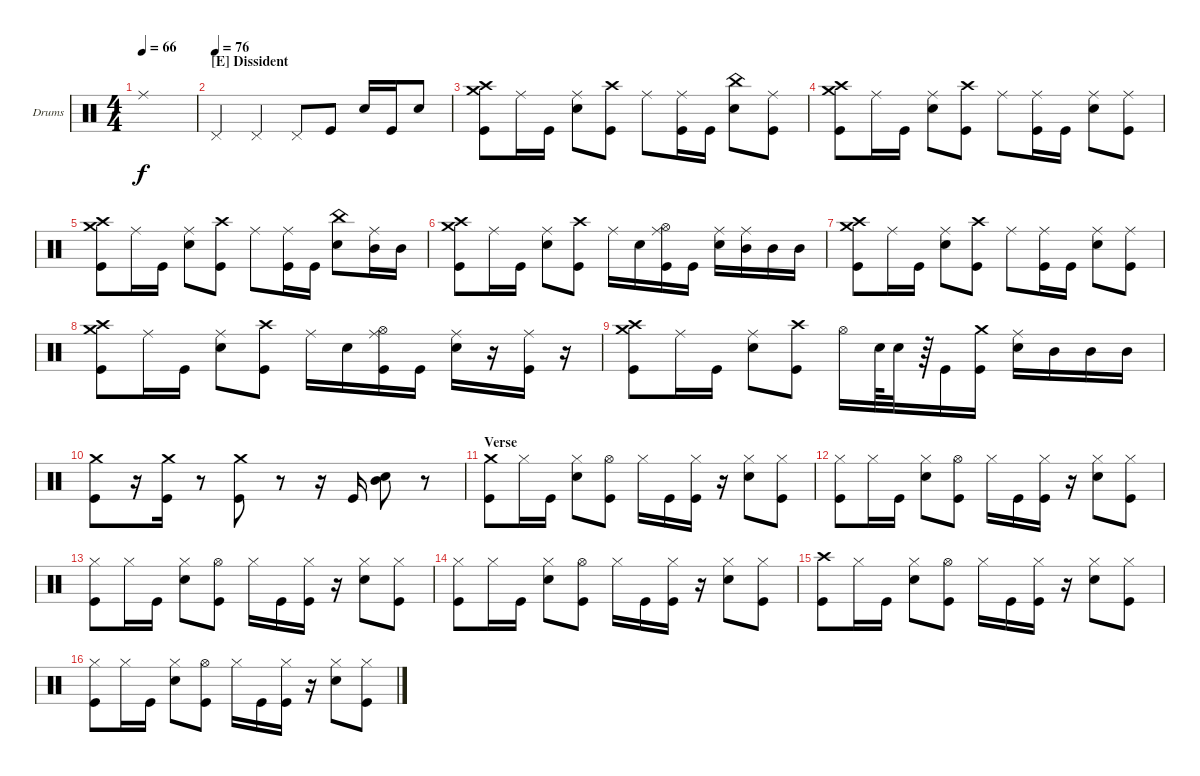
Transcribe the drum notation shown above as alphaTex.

\defaultSystemsLayout 4
\bracketExtendMode nobrackets
\firstSystemTrackNameOrientation horizontal
\otherSystemsTrackNameOrientation horizontal
\track ("Dave Abbruzzese" "Drums") {solo instrument percussion}
\staff {score}
\articulation defaults
\ts (4 4)
\tempo 66
\clef neutral
\ks c "Ride (middle)".1{dy f}
|
\section ("E" "Dissident")
\tempo (76)
"Pedal Hi-Hat (hit)".4 "Pedal Hi-Hat (hit)".4 "Pedal Hi-Hat (hit)".8 "Kick (hit)".8 "Snare (hit) 2".16 "Kick (hit)".16 "Snare (hit) 2".8 |
("Crash high (hit)" "Kick (hit)" "Crash medium (hit)").8 "Ride (middle)".16 "Kick (hit)".16 ("Snare (hit) 2" "Ride (middle)").8 ("Kick (hit)" "Crash high (hit)").8 "Ride (middle)".8 ("Kick (hit)" "Ride (middle)").16 "Kick (hit)".16 ("Snare (hit) 2" "China (hit)").8 ("Kick (hit)" "Ride (middle)").8 |
("Crash high (hit)" "Kick (hit)" "Crash medium (hit)").8 "Ride (middle)".16 "Kick (hit)".16 ("Snare (hit) 2" "Ride (middle)").8 ("Kick (hit)" "Crash high (hit)").8 "Ride (middle)".8 ("Kick (hit)" "Ride (middle)").16 "Kick (hit)".16 ("Snare (hit) 2" "Ride (middle)").8 ("Kick (hit)" "Ride (middle)").8 |
("Crash high (hit)" "Kick (hit)" "Crash medium (hit)").8 "Ride (middle)".16 "Kick (hit)".16 ("Snare (hit) 2" "Ride (middle)").8 ("Kick (hit)" "Crash high (hit)").8 "Ride (middle)".8 ("Kick (hit)" "Ride (middle)").16 "Kick (hit)".16 ("Snare (hit) 2" "China (hit)").8 ("Mid Tom (hit)" "Ride (middle)").16 "Mid Tom (hit)".16 |
("Crash high (hit)" "Kick (hit)" "Crash medium (hit)").8 "Ride (middle)".16 "Kick (hit)".16 ("Snare (hit) 2" "Ride (middle)").8 ("Kick (hit)" "Crash high (hit)").8 "Ride (middle)".16 "Snare (hit) 2".16 ("Hi-Hat (open)" "Kick (hit)" "Ride (middle)").16 "Kick (hit)".16 ("Snare (hit) 2" "Ride (middle)").16 ("Mid Tom (hit)" "Ride (middle)").16 "Mid Tom (hit)".16 "Mid Tom (hit)".16 |
("Crash high (hit)" "Kick (hit)" "Crash medium (hit)").8 "Ride (middle)".16 "Kick (hit)".16 ("Snare (hit) 2" "Ride (middle)").8 ("Kick (hit)" "Crash high (hit)").8 "Ride (middle)".8 ("Kick (hit)" "Ride (middle)").16 "Kick (hit)".16 ("Snare (hit) 2" "Ride (middle)").8 ("Kick (hit)" "Ride (middle)").8 |
("Crash high (hit)" "Kick (hit)" "Crash medium (hit)").8 "Ride (middle)".16 "Kick (hit)".16 ("Snare (hit) 2" "Ride (middle)").8 ("Kick (hit)" "Crash high (hit)").8 "Ride (middle)".16 "Snare (hit) 2".16 ("Hi-Hat (open)" "Kick (hit)" "Ride (middle)").16 "Kick (hit)".16 ("Snare (hit) 2" "Ride (middle)").16 r.16 ("Kick (hit)" "Ride (middle)").16 r.16 |
("Crash high (hit)" "Kick (hit)" "Crash medium (hit)").8 "Ride (middle)".16 "Kick (hit)".16 ("Snare (hit) 2" "Ride (middle)").8 ("Kick (hit)" "Crash high (hit)").8 "Hi-Hat (open)".16 "Snare (hit) 2".64 "Snare (hit) 2".32 r.64 "Kick (hit)".16 ("Kick (hit)" "Crash medium (hit)").16 ("Snare (hit) 2" "Ride (middle)").16 "Mid Tom (hit)".16 "Mid Tom (hit)".16 "Mid Tom (hit)".16 |
("Kick (hit)" "Crash medium (hit)").8 r.16 ("Kick (hit)" "Crash medium (hit)").16 r.8 ("Kick (hit)" "Crash medium (hit)").8 r.8 r.16 "Kick (hit)".16 ("Mid Tom (hit)" "Snare (hit) 2").8 r.8 |
\section ("" "Verse")
("Kick (hit)" "Crash medium (hit)").8 "Hi-Hat (closed)".16 "Kick (hit)".16 ("Snare (hit) 2" "Hi-Hat (closed)").8 ("Kick (hit)" "Hi-Hat (open)").8 "Hi-Hat (closed)".16 "Kick (hit)".16 ("Kick (hit)" "Hi-Hat (closed)").16 r.16 ("Snare (hit) 2" "Hi-Hat (closed)").8 ("Kick (hit)" "Hi-Hat (closed)").8 |
("Kick (hit)" "Hi-Hat (closed)").8 "Hi-Hat (closed)".16 "Kick (hit)".16 ("Snare (hit) 2" "Hi-Hat (closed)").8 ("Kick (hit)" "Hi-Hat (open)").8 "Hi-Hat (closed)".16 "Kick (hit)".16 ("Kick (hit)" "Hi-Hat (closed)").16 r.16 ("Snare (hit) 2" "Hi-Hat (closed)").8 ("Kick (hit)" "Hi-Hat (closed)").8 |
("Kick (hit)" "Hi-Hat (closed)").8 "Hi-Hat (closed)".16 "Kick (hit)".16 ("Snare (hit) 2" "Hi-Hat (closed)").8 ("Kick (hit)" "Hi-Hat (open)").8 "Hi-Hat (closed)".16 "Kick (hit)".16 ("Kick (hit)" "Hi-Hat (closed)").16 r.16 ("Snare (hit) 2" "Hi-Hat (closed)").8 ("Kick (hit)" "Hi-Hat (closed)").8 |
("Kick (hit)" "Hi-Hat (closed)").8 "Hi-Hat (closed)".16 "Kick (hit)".16 ("Snare (hit) 2" "Hi-Hat (closed)").8 ("Kick (hit)" "Hi-Hat (open)").8 "Hi-Hat (closed)".16 "Kick (hit)".16 ("Kick (hit)" "Hi-Hat (closed)").16 r.16 ("Snare (hit) 2" "Hi-Hat (closed)").8 ("Kick (hit)" "Hi-Hat (closed)").8 |
("Kick (hit)" "Crash high (hit)").8 "Hi-Hat (closed)".16 "Kick (hit)".16 ("Snare (hit) 2" "Hi-Hat (closed)").8 ("Kick (hit)" "Hi-Hat (open)").8 "Hi-Hat (closed)".16 "Kick (hit)".16 ("Kick (hit)" "Hi-Hat (closed)").16 r.16 ("Snare (hit) 2" "Hi-Hat (closed)").8 ("Kick (hit)" "Hi-Hat (closed)").8 |
("Kick (hit)" "Hi-Hat (closed)").8 "Hi-Hat (closed)".16 "Kick (hit)".16 ("Snare (hit) 2" "Hi-Hat (closed)").8 ("Kick (hit)" "Hi-Hat (open)").8 "Hi-Hat (closed)".16 "Kick (hit)".16 ("Kick (hit)" "Hi-Hat (closed)").16 r.16 ("Snare (hit) 2" "Hi-Hat (closed)").8 ("Kick (hit)" "Hi-Hat (closed)").8
